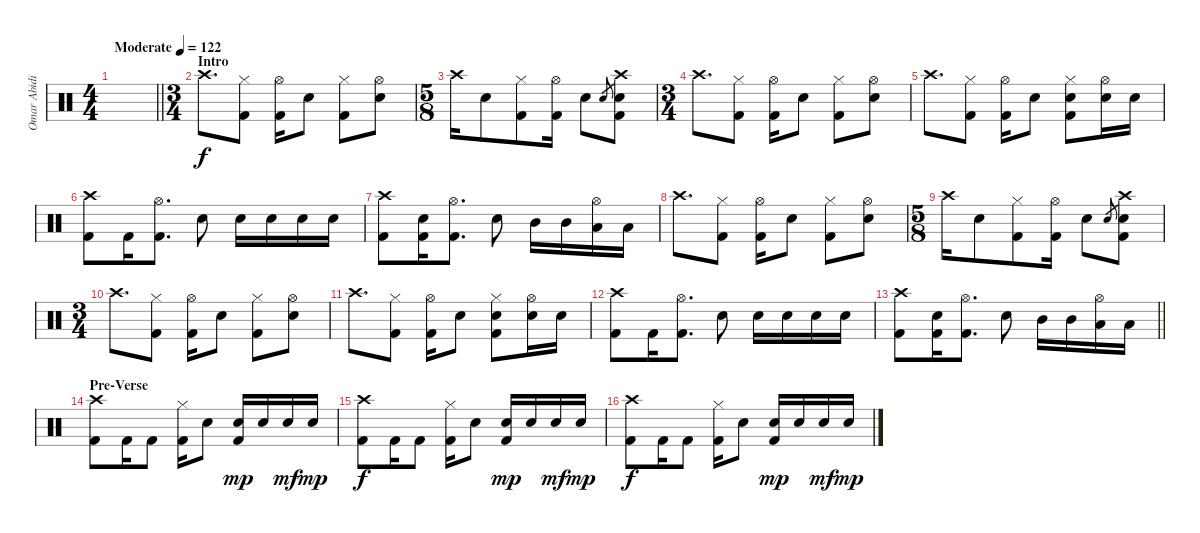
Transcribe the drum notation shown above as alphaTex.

\track ("Omar Abidi" "Omar Abidi") {instrument percussion}
\staff {score}
\articulation defaults
\ts (4 4)
\tempo (122 "Moderate")
\clef neutral
\barLineRight lightlight
\ks c
|
\ts (3 4)
\section ("" "Intro")
"Crash high (hit)".8{d} ("Hi-Hat (closed)" "Kick (hit) 2").8 ("Hi-Hat (open)" "Kick (hit) 2").16 "Electric Snare (hit)".8 ("Hi-Hat (closed)" "Kick (hit) 2").8 ("Hi-Hat (open)" "Electric Snare (hit)").8 |
\ts (5 8)
"Crash high (hit)".16 "Electric Snare (hit)".8 ("Hi-Hat (closed)" "Kick (hit) 2").8 ("Hi-Hat (open)" "Kick (hit) 2").16 "Electric Snare (hit)".8 "Electric Snare (hit)".8{gr} ("Crash high (hit)" "Electric Snare (hit)" "Kick (hit) 2").8 |
\ts (3 4)
"Crash high (hit)".8{d} ("Hi-Hat (closed)" "Kick (hit) 2").8 ("Hi-Hat (open)" "Kick (hit) 2").16 "Electric Snare (hit)".8 ("Hi-Hat (closed)" "Kick (hit) 2").8 ("Hi-Hat (open)" "Electric Snare (hit)").8 |
"Crash high (hit)".8{d} ("Hi-Hat (closed)" "Kick (hit) 2").8 ("Hi-Hat (open)" "Kick (hit) 2").16 "Electric Snare (hit)".8 ("Hi-Hat (closed)" "Electric Snare (hit)" "Kick (hit) 2").8 ("Hi-Hat (open)" "Electric Snare (hit)").16 "Electric Snare (hit)".16 |
("Crash high (hit)" "Kick (hit) 2").8 "Kick (hit) 2".16 ("Hi-Hat (open)" "Kick (hit) 2").8{d} "Electric Snare (hit)".8 "Electric Snare (hit)".16 "Electric Snare (hit)".16 "Electric Snare (hit)".16 "Electric Snare (hit)".16 |
("Crash high (hit)" "Kick (hit) 2").8 ("Electric Snare (hit)" "Kick (hit) 2").16 ("Hi-Hat (open)" "Kick (hit) 2").8{d} "Electric Snare (hit)".8 "Mid Tom (hit)".16 "Mid Tom (hit)".16 ("Hi-Hat (open)" "Low Tom (hit)").16 "Low Tom (hit)".16 |
"Crash high (hit)".8{d} ("Hi-Hat (closed)" "Kick (hit) 2").8 ("Hi-Hat (open)" "Kick (hit) 2").16 "Electric Snare (hit)".8 ("Hi-Hat (closed)" "Kick (hit) 2").8 ("Hi-Hat (open)" "Electric Snare (hit)").8 |
\ts (5 8)
"Crash high (hit)".16 "Electric Snare (hit)".8 ("Hi-Hat (closed)" "Kick (hit) 2").8 ("Hi-Hat (open)" "Kick (hit) 2").16 "Electric Snare (hit)".8 "Electric Snare (hit)".8{gr} ("Crash high (hit)" "Electric Snare (hit)" "Kick (hit) 2").8 |
\ts (3 4)
"Crash high (hit)".8{d} ("Hi-Hat (closed)" "Kick (hit) 2").8 ("Hi-Hat (open)" "Kick (hit) 2").16 "Electric Snare (hit)".8 ("Hi-Hat (closed)" "Kick (hit) 2").8 ("Hi-Hat (open)" "Electric Snare (hit)").8 |
"Crash high (hit)".8{d} ("Hi-Hat (closed)" "Kick (hit) 2").8 ("Hi-Hat (open)" "Kick (hit) 2").16 "Electric Snare (hit)".8 ("Hi-Hat (closed)" "Electric Snare (hit)" "Kick (hit) 2").8 ("Hi-Hat (open)" "Electric Snare (hit)").16 "Electric Snare (hit)".16 |
("Crash high (hit)" "Kick (hit) 2").8 "Kick (hit) 2".16 ("Hi-Hat (open)" "Kick (hit) 2").8{d} "Electric Snare (hit)".8 "Electric Snare (hit)".16 "Electric Snare (hit)".16 "Electric Snare (hit)".16 "Electric Snare (hit)".16 |
\barLineRight lightlight
("Crash high (hit)" "Kick (hit) 2").8 ("Electric Snare (hit)" "Kick (hit) 2").16 ("Hi-Hat (open)" "Kick (hit) 2").8{d} "Electric Snare (hit)".8 "Mid Tom (hit)".16 "Mid Tom (hit)".16 ("Hi-Hat (open)" "Low Tom (hit)").16 "Low Tom (hit)".16 |
\section ("" "Pre-Verse")
("Crash high (hit)" "Kick (hit) 2").8{volume 11} "Kick (hit) 2".16 "Kick (hit) 2".8 ("Hi-Hat (closed)" "Kick (hit) 2").16 "Electric Snare (hit)".8 ("Snare (hit) 2" "Kick (hit) 2").16{dy mp} "Snare (hit) 2".16 "Snare (hit) 2".16{dy mf} "Snare (hit) 2".16{dy mp} |
("Crash high (hit)" "Kick (hit) 2").8{dy f} "Kick (hit) 2".16 "Kick (hit) 2".8 ("Hi-Hat (closed)" "Kick (hit) 2").16 "Electric Snare (hit)".8 ("Snare (hit) 2" "Kick (hit) 2").16{dy mp} "Snare (hit) 2".16 "Snare (hit) 2".16{dy mf} "Snare (hit) 2".16{dy mp} |
("Crash high (hit)" "Kick (hit) 2").8{dy f} "Kick (hit) 2".16 "Kick (hit) 2".8 ("Hi-Hat (closed)" "Kick (hit) 2").16 "Electric Snare (hit)".8 ("Snare (hit) 2" "Kick (hit) 2").16{dy mp} "Snare (hit) 2".16 "Snare (hit) 2".16{dy mf} "Snare (hit) 2".16{dy mp}
